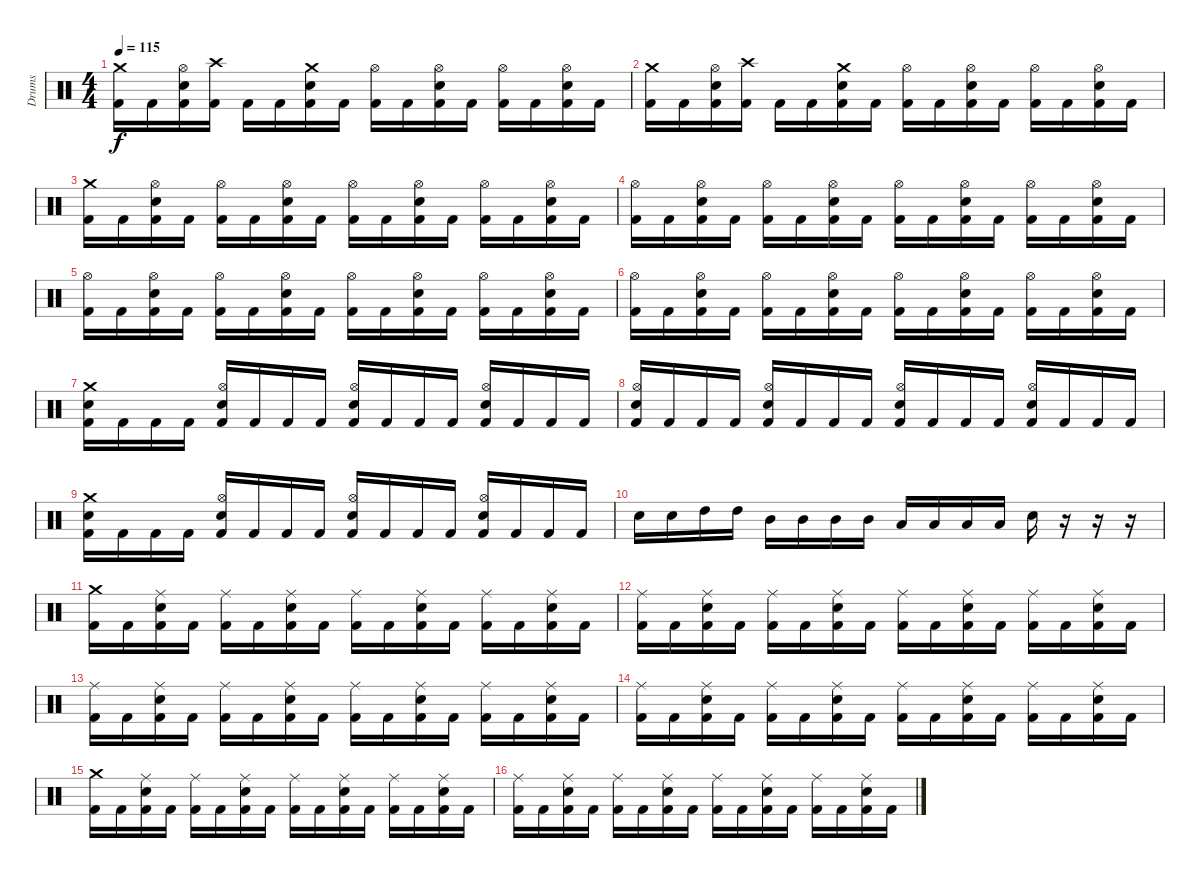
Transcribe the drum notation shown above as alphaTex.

\track ("Drums" "Drums") {instrument percussion}
\staff {score}
\articulation defaults
\ts (4 4)
\tempo 115
\clef neutral
\ks c
("Crash medium (hit)" "Kick (hit) 2").16{dy f} "Kick (hit) 2".16 ("Hi-Hat (open)" "Electric Snare (hit)" "Kick (hit) 2").16 ("Crash high (hit)" "Kick (hit) 2").16 "Kick (hit) 2".16 "Kick (hit) 2".16 ("Crash medium (hit)" "Electric Snare (hit)" "Kick (hit) 2").16 "Kick (hit) 2".16 ("Hi-Hat (open)" "Kick (hit) 2").16 "Kick (hit) 2".16 ("Hi-Hat (open)" "Electric Snare (hit)" "Kick (hit) 2").16 "Kick (hit) 2".16 ("Hi-Hat (open)" "Kick (hit) 2").16 "Kick (hit) 2".16 ("Hi-Hat (open)" "Electric Snare (hit)" "Kick (hit) 2").16 "Kick (hit) 2".16 |
("Crash medium (hit)" "Kick (hit) 2").16 "Kick (hit) 2".16 ("Hi-Hat (open)" "Electric Snare (hit)" "Kick (hit) 2").16 ("Crash high (hit)" "Kick (hit) 2").16 "Kick (hit) 2".16 "Kick (hit) 2".16 ("Crash medium (hit)" "Electric Snare (hit)" "Kick (hit) 2").16 "Kick (hit) 2".16 ("Hi-Hat (open)" "Kick (hit) 2").16 "Kick (hit) 2".16 ("Hi-Hat (open)" "Electric Snare (hit)" "Kick (hit) 2").16 "Kick (hit) 2".16 ("Hi-Hat (open)" "Kick (hit) 2").16 "Kick (hit) 2".16 ("Hi-Hat (open)" "Electric Snare (hit)" "Kick (hit) 2").16 "Kick (hit) 2".16 |
("Crash medium (hit)" "Kick (hit) 2").16 "Kick (hit) 2".16 ("Hi-Hat (open)" "Electric Snare (hit)" "Kick (hit) 2").16 "Kick (hit) 2".16 ("Hi-Hat (open)" "Kick (hit) 2").16 "Kick (hit) 2".16 ("Hi-Hat (open)" "Electric Snare (hit)" "Kick (hit) 2").16 "Kick (hit) 2".16 ("Hi-Hat (open)" "Kick (hit) 2").16 "Kick (hit) 2".16 ("Hi-Hat (open)" "Electric Snare (hit)" "Kick (hit) 2").16 "Kick (hit) 2".16 ("Hi-Hat (open)" "Kick (hit) 2").16 "Kick (hit) 2".16 ("Hi-Hat (open)" "Electric Snare (hit)" "Kick (hit) 2").16 "Kick (hit) 2".16 |
("Hi-Hat (open)" "Kick (hit) 2").16 "Kick (hit) 2".16 ("Hi-Hat (open)" "Electric Snare (hit)" "Kick (hit) 2").16 "Kick (hit) 2".16 ("Hi-Hat (open)" "Kick (hit) 2").16 "Kick (hit) 2".16 ("Hi-Hat (open)" "Electric Snare (hit)" "Kick (hit) 2").16 "Kick (hit) 2".16 ("Hi-Hat (open)" "Kick (hit) 2").16 "Kick (hit) 2".16 ("Hi-Hat (open)" "Electric Snare (hit)" "Kick (hit) 2").16 "Kick (hit) 2".16 ("Hi-Hat (open)" "Kick (hit) 2").16 "Kick (hit) 2".16 ("Hi-Hat (open)" "Electric Snare (hit)" "Kick (hit) 2").16 "Kick (hit) 2".16 |
("Hi-Hat (open)" "Kick (hit) 2").16 "Kick (hit) 2".16 ("Hi-Hat (open)" "Electric Snare (hit)" "Kick (hit) 2").16 "Kick (hit) 2".16 ("Hi-Hat (open)" "Kick (hit) 2").16 "Kick (hit) 2".16 ("Hi-Hat (open)" "Electric Snare (hit)" "Kick (hit) 2").16 "Kick (hit) 2".16 ("Hi-Hat (open)" "Kick (hit) 2").16 "Kick (hit) 2".16 ("Hi-Hat (open)" "Electric Snare (hit)" "Kick (hit) 2").16 "Kick (hit) 2".16 ("Hi-Hat (open)" "Kick (hit) 2").16 "Kick (hit) 2".16 ("Hi-Hat (open)" "Electric Snare (hit)" "Kick (hit) 2").16 "Kick (hit) 2".16 |
("Hi-Hat (open)" "Kick (hit) 2").16 "Kick (hit) 2".16 ("Hi-Hat (open)" "Electric Snare (hit)" "Kick (hit) 2").16 "Kick (hit) 2".16 ("Hi-Hat (open)" "Kick (hit) 2").16 "Kick (hit) 2".16 ("Hi-Hat (open)" "Electric Snare (hit)" "Kick (hit) 2").16 "Kick (hit) 2".16 ("Hi-Hat (open)" "Kick (hit) 2").16 "Kick (hit) 2".16 ("Hi-Hat (open)" "Electric Snare (hit)" "Kick (hit) 2").16 "Kick (hit) 2".16 ("Hi-Hat (open)" "Kick (hit) 2").16 "Kick (hit) 2".16 ("Hi-Hat (open)" "Electric Snare (hit)" "Kick (hit) 2").16 "Kick (hit) 2".16 |
("Crash medium (hit)" "Electric Snare (hit)" "Kick (hit) 2").16 "Kick (hit) 2".16 "Kick (hit) 2".16 "Kick (hit) 2".16 ("Hi-Hat (open)" "Electric Snare (hit)" "Kick (hit) 2").16 "Kick (hit) 2".16 "Kick (hit) 2".16 "Kick (hit) 2".16 ("Hi-Hat (open)" "Electric Snare (hit)" "Kick (hit) 2").16 "Kick (hit) 2".16 "Kick (hit) 2".16 "Kick (hit) 2".16 ("Hi-Hat (open)" "Electric Snare (hit)" "Kick (hit) 2").16 "Kick (hit) 2".16 "Kick (hit) 2".16 "Kick (hit) 2".16 |
("Hi-Hat (open)" "Electric Snare (hit)" "Kick (hit) 2").16 "Kick (hit) 2".16 "Kick (hit) 2".16 "Kick (hit) 2".16 ("Hi-Hat (open)" "Electric Snare (hit)" "Kick (hit) 2").16 "Kick (hit) 2".16 "Kick (hit) 2".16 "Kick (hit) 2".16 ("Hi-Hat (open)" "Electric Snare (hit)" "Kick (hit) 2").16 "Kick (hit) 2".16 "Kick (hit) 2".16 "Kick (hit) 2".16 ("Hi-Hat (open)" "Electric Snare (hit)" "Kick (hit) 2").16 "Kick (hit) 2".16 "Kick (hit) 2".16 "Kick (hit) 2".16 |
("Crash medium (hit)" "Electric Snare (hit)" "Kick (hit) 2").16 "Kick (hit) 2".16 "Kick (hit) 2".16 "Kick (hit) 2".16 ("Hi-Hat (open)" "Electric Snare (hit)" "Kick (hit) 2").16 "Kick (hit) 2".16 "Kick (hit) 2".16 "Kick (hit) 2".16 ("Hi-Hat (open)" "Electric Snare (hit)" "Kick (hit) 2").16 "Kick (hit) 2".16 "Kick (hit) 2".16 "Kick (hit) 2".16 ("Hi-Hat (open)" "Electric Snare (hit)" "Kick (hit) 2").16 "Kick (hit) 2".16 "Kick (hit) 2".16 "Kick (hit) 2".16 |
"Electric Snare (hit)".16 "Electric Snare (hit)".16 "High Tom (hit)".16 "High Tom (hit)".16 "Mid Tom (hit)".16 "Mid Tom (hit)".16 "Mid Tom (hit)".16 "Mid Tom (hit)".16 "Low Tom (hit)".16 "Low Tom (hit)".16 "Low Tom (hit)".16 "Low Tom (hit)".16 "Electric Snare (hit)".16 r.16 r.16 r.16 |
("Crash medium (hit)" "Kick (hit) 2").16 "Kick (hit) 2".16 ("Ride (middle)" "Electric Snare (hit)" "Kick (hit) 2").16 "Kick (hit) 2".16 ("Ride (middle)" "Kick (hit) 2").16 "Kick (hit) 2".16 ("Ride (middle)" "Electric Snare (hit)" "Kick (hit) 2").16 "Kick (hit) 2".16 ("Ride (middle)" "Kick (hit) 2").16 "Kick (hit) 2".16 ("Ride (middle)" "Electric Snare (hit)" "Kick (hit) 2").16 "Kick (hit) 2".16 ("Ride (middle)" "Kick (hit) 2").16 "Kick (hit) 2".16 ("Ride (middle)" "Electric Snare (hit)" "Kick (hit) 2").16 "Kick (hit) 2".16 |
("Ride (middle)" "Kick (hit) 2").16 "Kick (hit) 2".16 ("Ride (middle)" "Electric Snare (hit)" "Kick (hit) 2").16 "Kick (hit) 2".16 ("Ride (middle)" "Kick (hit) 2").16 "Kick (hit) 2".16 ("Ride (middle)" "Electric Snare (hit)" "Kick (hit) 2").16 "Kick (hit) 2".16 ("Ride (middle)" "Kick (hit) 2").16 "Kick (hit) 2".16 ("Ride (middle)" "Electric Snare (hit)" "Kick (hit) 2").16 "Kick (hit) 2".16 ("Ride (middle)" "Kick (hit) 2").16 "Kick (hit) 2".16 ("Ride (middle)" "Electric Snare (hit)" "Kick (hit) 2").16 "Kick (hit) 2".16 |
("Ride (middle)" "Kick (hit) 2").16 "Kick (hit) 2".16 ("Ride (middle)" "Electric Snare (hit)" "Kick (hit) 2").16 "Kick (hit) 2".16 ("Ride (middle)" "Kick (hit) 2").16 "Kick (hit) 2".16 ("Ride (middle)" "Electric Snare (hit)" "Kick (hit) 2").16 "Kick (hit) 2".16 ("Ride (middle)" "Kick (hit) 2").16 "Kick (hit) 2".16 ("Ride (middle)" "Electric Snare (hit)" "Kick (hit) 2").16 "Kick (hit) 2".16 ("Ride (middle)" "Kick (hit) 2").16 "Kick (hit) 2".16 ("Ride (middle)" "Electric Snare (hit)" "Kick (hit) 2").16 "Kick (hit) 2".16 |
("Ride (middle)" "Kick (hit) 2").16 "Kick (hit) 2".16 ("Ride (middle)" "Electric Snare (hit)" "Kick (hit) 2").16 "Kick (hit) 2".16 ("Ride (middle)" "Kick (hit) 2").16 "Kick (hit) 2".16 ("Ride (middle)" "Electric Snare (hit)" "Kick (hit) 2").16 "Kick (hit) 2".16 ("Ride (middle)" "Kick (hit) 2").16 "Kick (hit) 2".16 ("Ride (middle)" "Electric Snare (hit)" "Kick (hit) 2").16 "Kick (hit) 2".16 ("Ride (middle)" "Kick (hit) 2").16 "Kick (hit) 2".16 ("Ride (middle)" "Electric Snare (hit)" "Kick (hit) 2").16 "Kick (hit) 2".16 |
("Crash medium (hit)" "Kick (hit) 2").16 "Kick (hit) 2".16 ("Ride (middle)" "Electric Snare (hit)" "Kick (hit) 2").16 "Kick (hit) 2".16 ("Ride (middle)" "Kick (hit) 2").16 "Kick (hit) 2".16 ("Ride (middle)" "Electric Snare (hit)" "Kick (hit) 2").16 "Kick (hit) 2".16 ("Ride (middle)" "Kick (hit) 2").16 "Kick (hit) 2".16 ("Ride (middle)" "Electric Snare (hit)" "Kick (hit) 2").16 "Kick (hit) 2".16 ("Ride (middle)" "Kick (hit) 2").16 "Kick (hit) 2".16 ("Ride (middle)" "Electric Snare (hit)" "Kick (hit) 2").16 "Kick (hit) 2".16 |
("Ride (middle)" "Kick (hit) 2").16 "Kick (hit) 2".16 ("Ride (middle)" "Electric Snare (hit)" "Kick (hit) 2").16 "Kick (hit) 2".16 ("Ride (middle)" "Kick (hit) 2").16 "Kick (hit) 2".16 ("Ride (middle)" "Electric Snare (hit)" "Kick (hit) 2").16 "Kick (hit) 2".16 ("Ride (middle)" "Kick (hit) 2").16 "Kick (hit) 2".16 ("Ride (middle)" "Electric Snare (hit)" "Kick (hit) 2").16 "Kick (hit) 2".16 ("Ride (middle)" "Kick (hit) 2").16 "Kick (hit) 2".16 ("Ride (middle)" "Electric Snare (hit)" "Kick (hit) 2").16 "Kick (hit) 2".16
